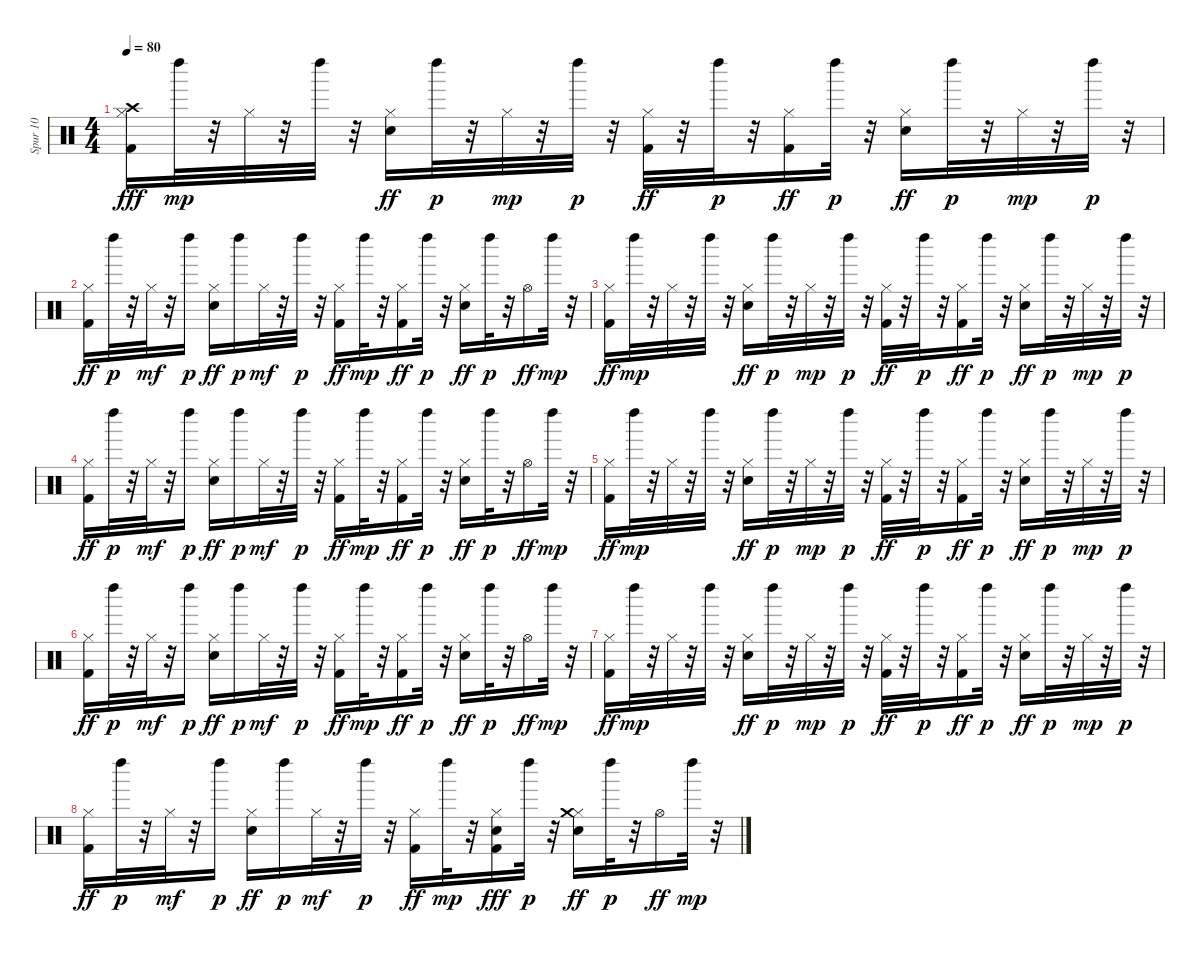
\track ("Spur 10" "Spur 10") {instrument percussion}
\staff {score}
\articulation defaults
\ts (4 4)
\tempo 80
\clef neutral
\ks c
("Hi-Hat (closed)" "Kick (hit) 2" "Crash high (hit)").16{dy fff} "Left Maraca (hit)".32{dy mp} r.32 "Hi-Hat (closed)".32 r.32 "Left Maraca (hit)".32 r.32 ("Electric Snare (hit)" "Hi-Hat (closed)").16{dy ff} "Left Maraca (hit)".32{dy p} r.32 "Hi-Hat (closed)".32{dy mp} r.32 "Left Maraca (hit)".32{dy p} r.32 ("Hi-Hat (closed)" "Kick (hit) 2").32{dy ff} r.32 "Left Maraca (hit)".32{dy p} r.32 ("Hi-Hat (closed)" "Kick (hit) 2").16{dy ff} "Left Maraca (hit)".32{dy p} r.32 ("Electric Snare (hit)" "Hi-Hat (closed)").16{dy ff} "Left Maraca (hit)".32{dy p} r.32 "Hi-Hat (closed)".32{dy mp} r.32 "Left Maraca (hit)".32{dy p} r.32 |
("Hi-Hat (closed)" "Kick (hit) 2").16{dy ff} "Left Maraca (hit)".32{dy p} r.32 "Hi-Hat (closed)".32{dy mf} r.32 "Left Maraca (hit)".16{dy p} ("Electric Snare (hit)" "Hi-Hat (closed)").16{dy ff} "Left Maraca (hit)".16{dy p} "Hi-Hat (closed)".32{dy mf} r.32 "Left Maraca (hit)".32{dy p} r.32 ("Hi-Hat (closed)" "Kick (hit) 2").16{dy ff} "Left Maraca (hit)".32{dy mp} r.32 ("Hi-Hat (closed)" "Kick (hit) 2").16{dy ff} "Left Maraca (hit)".32{dy p} r.32 ("Electric Snare (hit)" "Hi-Hat (closed)").16{dy ff} "Left Maraca (hit)".32{dy p} r.32 "Hi-Hat (open)".16{dy ff} "Left Maraca (hit)".32{dy mp} r.32 |
("Hi-Hat (closed)" "Kick (hit) 2").16{dy ff} "Left Maraca (hit)".32{dy mp} r.32 "Hi-Hat (closed)".32 r.32 "Left Maraca (hit)".32 r.32 ("Electric Snare (hit)" "Hi-Hat (closed)").16{dy ff} "Left Maraca (hit)".32{dy p} r.32 "Hi-Hat (closed)".32{dy mp} r.32 "Left Maraca (hit)".32{dy p} r.32 ("Hi-Hat (closed)" "Kick (hit) 2").32{dy ff} r.32 "Left Maraca (hit)".32{dy p} r.32 ("Hi-Hat (closed)" "Kick (hit) 2").16{dy ff} "Left Maraca (hit)".32{dy p} r.32 ("Electric Snare (hit)" "Hi-Hat (closed)").16{dy ff} "Left Maraca (hit)".32{dy p} r.32 "Hi-Hat (closed)".32{dy mp} r.32 "Left Maraca (hit)".32{dy p} r.32 |
("Hi-Hat (closed)" "Kick (hit) 2").16{dy ff} "Left Maraca (hit)".32{dy p} r.32 "Hi-Hat (closed)".32{dy mf} r.32 "Left Maraca (hit)".16{dy p} ("Electric Snare (hit)" "Hi-Hat (closed)").16{dy ff} "Left Maraca (hit)".16{dy p} "Hi-Hat (closed)".32{dy mf} r.32 "Left Maraca (hit)".32{dy p} r.32 ("Hi-Hat (closed)" "Kick (hit) 2").16{dy ff} "Left Maraca (hit)".32{dy mp} r.32 ("Hi-Hat (closed)" "Kick (hit) 2").16{dy ff} "Left Maraca (hit)".32{dy p} r.32 ("Electric Snare (hit)" "Hi-Hat (closed)").16{dy ff} "Left Maraca (hit)".32{dy p} r.32 "Hi-Hat (open)".16{dy ff} "Left Maraca (hit)".32{dy mp} r.32 |
("Hi-Hat (closed)" "Kick (hit) 2").16{dy ff} "Left Maraca (hit)".32{dy mp} r.32 "Hi-Hat (closed)".32 r.32 "Left Maraca (hit)".32 r.32 ("Electric Snare (hit)" "Hi-Hat (closed)").16{dy ff} "Left Maraca (hit)".32{dy p} r.32 "Hi-Hat (closed)".32{dy mp} r.32 "Left Maraca (hit)".32{dy p} r.32 ("Hi-Hat (closed)" "Kick (hit) 2").32{dy ff} r.32 "Left Maraca (hit)".32{dy p} r.32 ("Hi-Hat (closed)" "Kick (hit) 2").16{dy ff} "Left Maraca (hit)".32{dy p} r.32 ("Electric Snare (hit)" "Hi-Hat (closed)").16{dy ff} "Left Maraca (hit)".32{dy p} r.32 "Hi-Hat (closed)".32{dy mp} r.32 "Left Maraca (hit)".32{dy p} r.32 |
("Hi-Hat (closed)" "Kick (hit) 2").16{dy ff} "Left Maraca (hit)".32{dy p} r.32 "Hi-Hat (closed)".32{dy mf} r.32 "Left Maraca (hit)".16{dy p} ("Electric Snare (hit)" "Hi-Hat (closed)").16{dy ff} "Left Maraca (hit)".16{dy p} "Hi-Hat (closed)".32{dy mf} r.32 "Left Maraca (hit)".32{dy p} r.32 ("Hi-Hat (closed)" "Kick (hit) 2").16{dy ff} "Left Maraca (hit)".32{dy mp} r.32 ("Hi-Hat (closed)" "Kick (hit) 2").16{dy ff} "Left Maraca (hit)".32{dy p} r.32 ("Electric Snare (hit)" "Hi-Hat (closed)").16{dy ff} "Left Maraca (hit)".32{dy p} r.32 "Hi-Hat (open)".16{dy ff} "Left Maraca (hit)".32{dy mp} r.32 |
("Hi-Hat (closed)" "Kick (hit) 2").16{dy ff} "Left Maraca (hit)".32{dy mp} r.32 "Hi-Hat (closed)".32 r.32 "Left Maraca (hit)".32 r.32 ("Electric Snare (hit)" "Hi-Hat (closed)").16{dy ff} "Left Maraca (hit)".32{dy p} r.32 "Hi-Hat (closed)".32{dy mp} r.32 "Left Maraca (hit)".32{dy p} r.32 ("Hi-Hat (closed)" "Kick (hit) 2").32{dy ff} r.32 "Left Maraca (hit)".32{dy p} r.32 ("Hi-Hat (closed)" "Kick (hit) 2").16{dy ff} "Left Maraca (hit)".32{dy p} r.32 ("Electric Snare (hit)" "Hi-Hat (closed)").16{dy ff} "Left Maraca (hit)".32{dy p} r.32 "Hi-Hat (closed)".32{dy mp} r.32 "Left Maraca (hit)".32{dy p} r.32 |
("Hi-Hat (closed)" "Kick (hit) 2").16{dy ff} "Left Maraca (hit)".32{dy p} r.32 "Hi-Hat (closed)".32{dy mf} r.32 "Left Maraca (hit)".16{dy p} ("Electric Snare (hit)" "Hi-Hat (closed)").16{dy ff} "Left Maraca (hit)".16{dy p} "Hi-Hat (closed)".32{dy mf} r.32 "Left Maraca (hit)".32{dy p} r.32 ("Hi-Hat (closed)" "Kick (hit) 2").16{dy ff} "Left Maraca (hit)".32{dy mp} r.32 ("Hi-Hat (closed)" "Kick (hit) 2" "Electric Snare (hit)").16{dy fff} "Left Maraca (hit)".32{dy p} r.32 ("Electric Snare (hit)" "Hi-Hat (closed)" "Crash medium (hit)").16{dy ff} "Left Maraca (hit)".32{dy p} r.32 "Hi-Hat (open)".16{dy ff} "Left Maraca (hit)".32{dy mp} r.32
